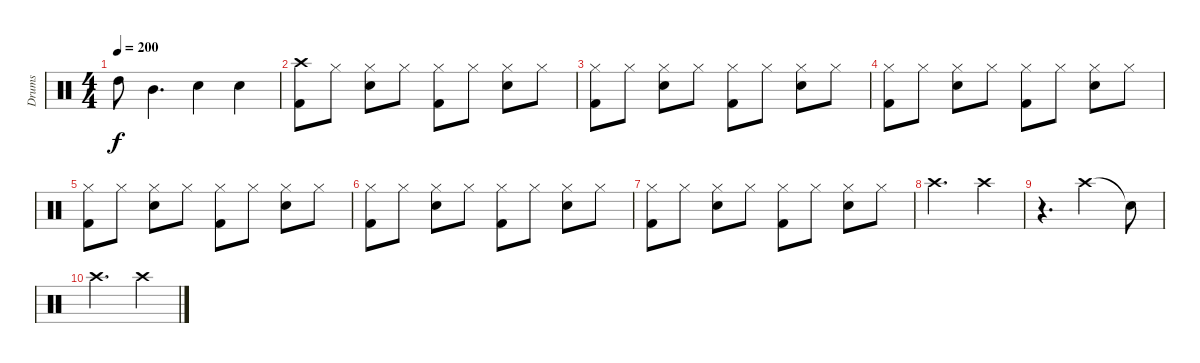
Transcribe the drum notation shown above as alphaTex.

\track ("Drums" "Drums") {instrument percussion}
\staff {score}
\articulation defaults
\ts (4 4)
\tempo 200
\clef neutral
\ks c "High Tom (hit)".8{dy f} "Mid Tom (hit)".4{d} "Snare (hit) 2".4 "Snare (hit) 2".4
|
("Crash high (hit)" "Kick (hit) 2").8 "Hi-Hat (closed)".8 ("Hi-Hat (closed)" "Snare (hit) 2").8 "Hi-Hat (closed)".8 ("Hi-Hat (closed)" "Kick (hit) 2").8 "Hi-Hat (closed)".8 ("Hi-Hat (closed)" "Snare (hit) 2").8 "Hi-Hat (closed)".8 |
("Hi-Hat (closed)" "Kick (hit) 2").8 "Hi-Hat (closed)".8 ("Hi-Hat (closed)" "Snare (hit) 2").8 "Hi-Hat (closed)".8 ("Hi-Hat (closed)" "Kick (hit) 2").8 "Hi-Hat (closed)".8 ("Hi-Hat (closed)" "Snare (hit) 2").8 "Hi-Hat (closed)".8 |
("Hi-Hat (closed)" "Kick (hit) 2").8 "Hi-Hat (closed)".8 ("Hi-Hat (closed)" "Snare (hit) 2").8 "Hi-Hat (closed)".8 ("Hi-Hat (closed)" "Kick (hit) 2").8 "Hi-Hat (closed)".8 ("Hi-Hat (closed)" "Snare (hit) 2").8 "Hi-Hat (closed)".8 |
("Hi-Hat (closed)" "Kick (hit) 2").8 "Hi-Hat (closed)".8 ("Hi-Hat (closed)" "Snare (hit) 2").8 "Hi-Hat (closed)".8 ("Hi-Hat (closed)" "Kick (hit) 2").8 "Hi-Hat (closed)".8 ("Hi-Hat (closed)" "Snare (hit) 2").8 "Hi-Hat (closed)".8 |
("Hi-Hat (closed)" "Kick (hit) 2").8 "Hi-Hat (closed)".8 ("Hi-Hat (closed)" "Snare (hit) 2").8 "Hi-Hat (closed)".8 ("Hi-Hat (closed)" "Kick (hit) 2").8 "Hi-Hat (closed)".8 ("Hi-Hat (closed)" "Snare (hit) 2").8 "Hi-Hat (closed)".8 |
("Hi-Hat (closed)" "Kick (hit) 2").8 "Hi-Hat (closed)".8 ("Hi-Hat (closed)" "Snare (hit) 2").8 "Hi-Hat (closed)".8 ("Hi-Hat (closed)" "Kick (hit) 2").8 "Hi-Hat (closed)".8 ("Hi-Hat (closed)" "Snare (hit) 2").8 "Hi-Hat (closed)".8 |
"Crash high (hit)".2{d} "Crash high (hit)".4 |
r.4{d} "Crash high (hit)".2 "Snare (hit)"{t}.8 |
"Crash high (hit)".2{d} "Crash high (hit)".4
